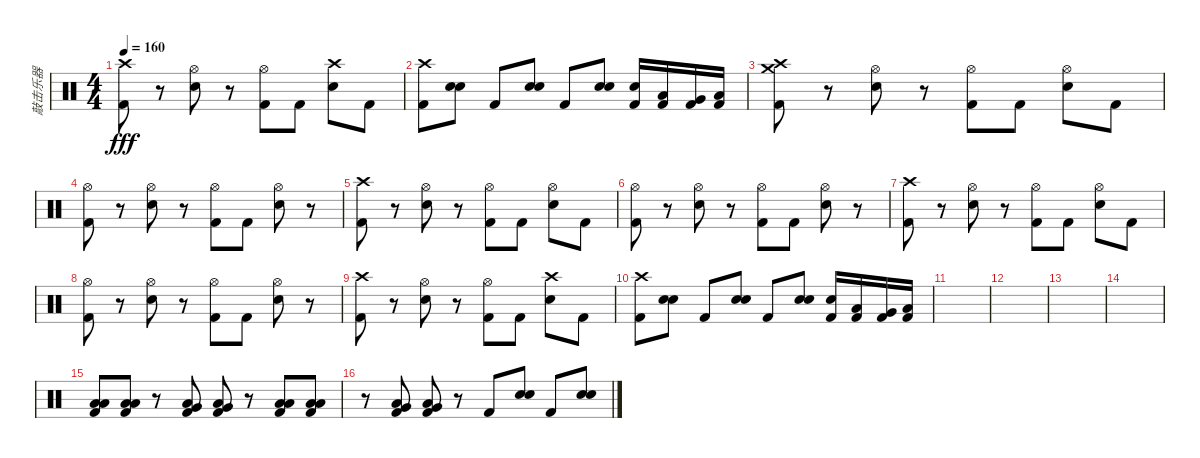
\track ("敲击乐器" "敲击乐器") {instrument percussion}
\staff {score}
\articulation defaults
\ts (4 4)
\tempo 160
\clef neutral
\ks c
("Crash high (hit)" "Kick (hit) 2").8{dy fff} r.8 ("Hi-Hat (open)" "Electric Snare (hit)").8 r.8 ("Hi-Hat (open)" "Kick (hit) 2").8 "Kick (hit) 2".8 ("Crash high (hit)" "Electric Snare (hit)").8 "Kick (hit) 2".8 |
("Crash high (hit)" "Kick (hit) 2").8 ("Snare (hit) 2" "Electric Snare (hit)").8 "Kick (hit) 2".8 ("Snare (hit) 2" "Electric Snare (hit)").8 "Kick (hit) 2".8 ("Snare (hit) 2" "Electric Snare (hit)").8 ("Electric Snare (hit)" "Kick (hit) 2").16 ("Low Tom (hit)" "Kick (hit) 2").16 ("Very Low Tom (hit)" "Kick (hit) 2").16 ("Low Floor Tom (hit)" "Kick (hit) 2").16 |
("Crash high (hit)" "Crash medium (hit)" "Kick (hit) 2").8 r.8 ("Hi-Hat (open)" "Electric Snare (hit)").8 r.8 ("Hi-Hat (open)" "Kick (hit) 2").8 "Kick (hit) 2".8 ("Hi-Hat (open)" "Electric Snare (hit)").8 "Kick (hit) 2".8 |
("Hi-Hat (open)" "Kick (hit) 2").8 r.8 ("Hi-Hat (open)" "Electric Snare (hit)").8 r.8 ("Hi-Hat (open)" "Kick (hit) 2").8 "Kick (hit) 2".8 ("Hi-Hat (open)" "Electric Snare (hit)").8 r.8 |
("Crash high (hit)" "Kick (hit) 2").8 r.8 ("Hi-Hat (open)" "Electric Snare (hit)").8 r.8 ("Hi-Hat (open)" "Kick (hit) 2").8 "Kick (hit) 2".8 ("Hi-Hat (open)" "Electric Snare (hit)").8 "Kick (hit) 2".8 |
("Hi-Hat (open)" "Kick (hit) 2").8 r.8 ("Hi-Hat (open)" "Electric Snare (hit)").8 r.8 ("Hi-Hat (open)" "Kick (hit) 2").8 "Kick (hit) 2".8 ("Hi-Hat (open)" "Electric Snare (hit)").8 r.8 |
("Crash high (hit)" "Kick (hit) 2").8 r.8 ("Hi-Hat (open)" "Electric Snare (hit)").8 r.8 ("Hi-Hat (open)" "Kick (hit) 2").8 "Kick (hit) 2".8 ("Hi-Hat (open)" "Electric Snare (hit)").8 "Kick (hit) 2".8 |
("Hi-Hat (open)" "Kick (hit) 2").8 r.8 ("Hi-Hat (open)" "Electric Snare (hit)").8 r.8 ("Hi-Hat (open)" "Kick (hit) 2").8 "Kick (hit) 2".8 ("Hi-Hat (open)" "Electric Snare (hit)").8 r.8 |
("Crash high (hit)" "Kick (hit) 2").8 r.8 ("Hi-Hat (open)" "Electric Snare (hit)").8 r.8 ("Hi-Hat (open)" "Kick (hit) 2").8 "Kick (hit) 2".8 ("Crash high (hit)" "Electric Snare (hit)").8 "Kick (hit) 2".8 |
("Crash high (hit)" "Kick (hit) 2").8 ("Snare (hit) 2" "Electric Snare (hit)").8 "Kick (hit) 2".8 ("Snare (hit) 2" "Electric Snare (hit)").8 "Kick (hit) 2".8 ("Snare (hit) 2" "Electric Snare (hit)").8 ("Electric Snare (hit)" "Kick (hit) 2").16 ("Low Tom (hit)" "Kick (hit) 2").16 ("Very Low Tom (hit)" "Kick (hit) 2").16 ("Low Floor Tom (hit)" "Kick (hit) 2").16 |
|
|
|
|
("Low Floor Tom (hit)" "Low Tom (hit)" "Kick (hit) 2").8 ("Low Floor Tom (hit)" "Low Tom (hit)" "Kick (hit) 2").8 r.8 ("Low Floor Tom (hit)" "Very Low Tom (hit)" "Kick (hit) 2").8 ("Low Floor Tom (hit)" "Very Low Tom (hit)" "Kick (hit) 2").8 r.8 ("Low Floor Tom (hit)" "Low Tom (hit)" "Kick (hit) 2").8 ("Low Floor Tom (hit)" "Low Tom (hit)" "Kick (hit) 2").8 |
r.8 ("Low Floor Tom (hit)" "Very Low Tom (hit)" "Kick (hit) 2").8 ("Low Floor Tom (hit)" "Very Low Tom (hit)" "Kick (hit) 2").8 r.8 "Kick (hit) 2".8 ("Snare (hit) 2" "Electric Snare (hit)").8 "Kick (hit) 2".8 ("Snare (hit) 2" "Electric Snare (hit)").8
